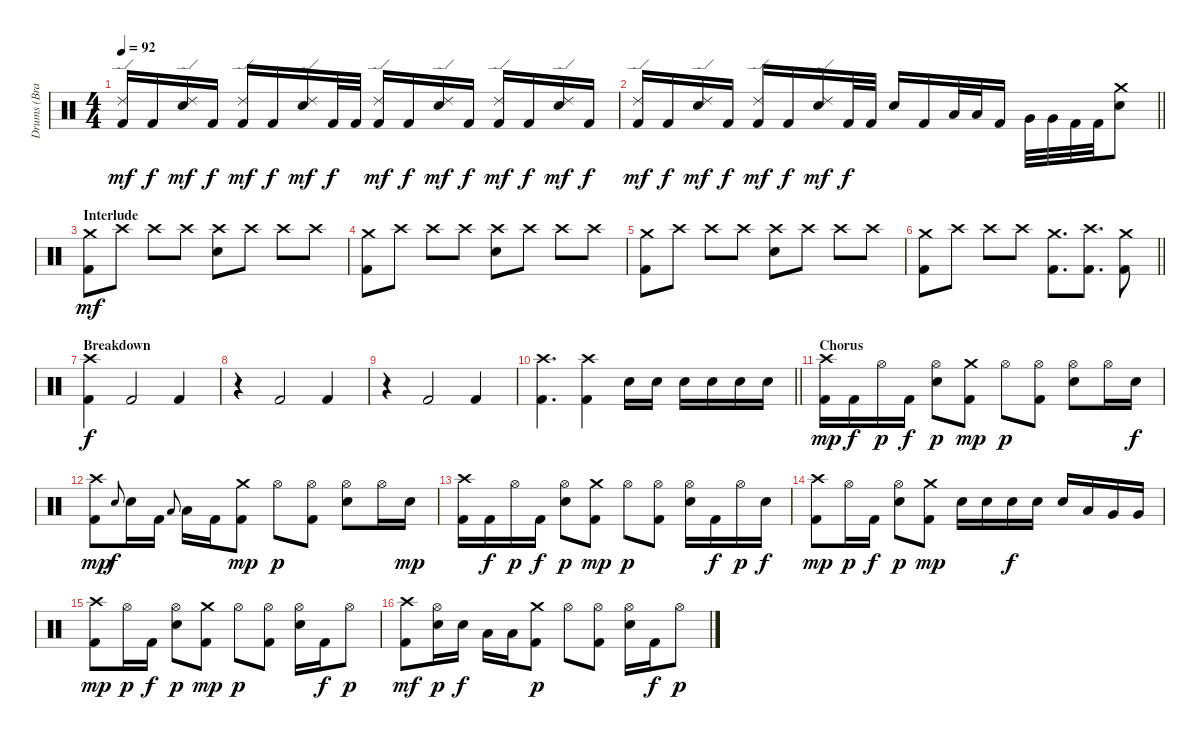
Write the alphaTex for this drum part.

\track ("Drums (Brandon Saller)" "Drums (Bra") {instrument percussion}
\staff {score}
\articulation defaults
\ts (4 4)
\tempo 92
\clef neutral
\ks c
("Ride (edge) 2" "Kick (hit) 2").16{dy mf} "Kick (hit) 2".16{dy f} ("Ride (edge) 2" "Electric Snare (hit)").16{dy mf} "Kick (hit) 2".16{dy f} ("Ride (edge) 2" "Kick (hit) 2").16{dy mf} "Kick (hit) 2".16{dy f} ("Ride (edge) 2" "Electric Snare (hit)").16{dy mf} "Kick (hit) 2".32{dy f} "Kick (hit) 2".32 ("Ride (edge) 2" "Kick (hit) 2").16{dy mf} "Kick (hit) 2".16{dy f} ("Ride (edge) 2" "Electric Snare (hit)").16{dy mf} "Kick (hit) 2".16{dy f} ("Ride (edge) 2" "Kick (hit) 2").16{dy mf} "Kick (hit) 2".16{dy f} ("Ride (edge) 2" "Electric Snare (hit)").16{dy mf} "Kick (hit) 2".16{dy f} |
\barLineRight lightlight
("Ride (edge) 2" "Kick (hit) 2").16{dy mf} "Kick (hit) 2".16{dy f} ("Ride (edge) 2" "Electric Snare (hit)").16{dy mf} "Kick (hit) 2".16{dy f} ("Ride (edge) 2" "Kick (hit) 2").16{dy mf} "Kick (hit) 2".16{dy f} ("Ride (edge) 2" "Electric Snare (hit)").16{dy mf} "Kick (hit) 2".32{dy f} "Kick (hit) 2".32 "Electric Snare (hit)".16 "Kick (hit) 2".16 "Low Tom (hit)".32 "Low Tom (hit)".32 "Kick (hit) 2".16 "Very Low Tom (hit)".32 "Very Low Tom (hit)".32 "Kick (hit) 2".32 "Kick (hit) 2".32 ("Crash medium (hit)" "Electric Snare (hit)").8 |
\section ("" "Interlude")
("Crash medium (hit)" "Kick (hit) 2").8{dy mf} "Crash high (hit)".8 "Crash high (hit)".8 "Crash high (hit)".8 ("Crash high (hit)" "Electric Snare (hit)").8 "Crash high (hit)".8 "Crash high (hit)".8 "Crash high (hit)".8 |
("Crash medium (hit)" "Kick (hit) 2").8 "Crash high (hit)".8 "Crash high (hit)".8 "Crash high (hit)".8 ("Crash high (hit)" "Electric Snare (hit)").8 "Crash high (hit)".8 "Crash high (hit)".8 "Crash high (hit)".8 |
("Crash medium (hit)" "Kick (hit) 2").8 "Crash high (hit)".8 "Crash high (hit)".8 "Crash high (hit)".8 ("Crash high (hit)" "Electric Snare (hit)").8 "Crash high (hit)".8 "Crash high (hit)".8 "Crash high (hit)".8 |
\barLineRight lightlight
("Crash medium (hit)" "Kick (hit) 2").8 "Crash high (hit)".8 "Crash high (hit)".8 "Crash high (hit)".8 ("Crash medium (hit)" "Kick (hit) 2").8{d} ("Crash high (hit)" "Kick (hit) 2").8{d} ("Crash medium (hit)" "Kick (hit) 2").8 |
\section ("" "Breakdown")
("Crash high (hit)" "Kick (hit) 2").4{dy f} "Kick (hit) 2".2 "Kick (hit) 2".4 |
r.4 "Kick (hit) 2".2 "Kick (hit) 2".4 |
r.4 "Kick (hit) 2".2 "Kick (hit) 2".4 |
\barLineRight lightlight
("Crash high (hit)" "Kick (hit) 2").4{d} ("Crash high (hit)" "Kick (hit) 2").4 "Electric Snare (hit)".16 "Electric Snare (hit)".16 "Electric Snare (hit)".16 "Electric Snare (hit)".16 "Electric Snare (hit)".16 "Electric Snare (hit)".16 |
\section ("" "Chorus")
("Crash high (hit)" "Kick (hit) 2").16{dy mp} "Kick (hit) 2".16{dy f} "Hi-Hat (open)".16{dy p} "Kick (hit) 2".16{dy f} ("Hi-Hat (open)" "Electric Snare (hit)").8{dy p} ("Crash medium (hit)" "Kick (hit) 2").8{dy mp} "Hi-Hat (open)".8{dy p} ("Hi-Hat (open)" "Kick (hit) 2").8 ("Hi-Hat (open)" "Electric Snare (hit)").8 "Hi-Hat (open)".16 "Electric Snare (hit)".16{dy f} |
("Crash high (hit)" "Kick (hit) 2").8{dy mp} "Electric Snare (hit)"{h}.8{gr onbeat dy f} "Electric Snare (hit)".16 "Kick (hit) 2".16 "Low Tom (hit)".8{gr onbeat} "Low Tom (hit)".16 "Kick (hit) 2".16 ("Crash medium (hit)" "Kick (hit) 2").8{dy mp} "Hi-Hat (open)".8{dy p} ("Hi-Hat (open)" "Kick (hit) 2").8 ("Hi-Hat (open)" "Electric Snare (hit)").8 "Hi-Hat (open)".16 "Electric Snare (hit)".16{dy mp} |
("Crash high (hit)" "Kick (hit) 2").16 "Kick (hit) 2".16{dy f} "Hi-Hat (open)".16{dy p} "Kick (hit) 2".16{dy f} ("Hi-Hat (open)" "Electric Snare (hit)").8{dy p} ("Crash medium (hit)" "Kick (hit) 2").8{dy mp} "Hi-Hat (open)".8{dy p} ("Hi-Hat (open)" "Kick (hit) 2").8 ("Hi-Hat (open)" "Electric Snare (hit)").16 "Kick (hit) 2".16{dy f} "Hi-Hat (open)".16{dy p} "Electric Snare (hit)".16{dy f} |
("Crash high (hit)" "Kick (hit) 2").8{dy mp} "Hi-Hat (open)".16{dy p} "Kick (hit) 2".16{dy f} ("Hi-Hat (open)" "Electric Snare (hit)").8{dy p} ("Crash medium (hit)" "Kick (hit) 2").8{dy mp} "Electric Snare (hit)".16 "Electric Snare (hit)".16 "Electric Snare (hit)".16{dy f} "Electric Snare (hit)".16 "Electric Snare (hit)".16 "Low Tom (hit)".16 "Very Low Tom (hit)".16 "Very Low Tom (hit)".16 |
("Crash high (hit)" "Kick (hit) 2").8{dy mp} "Hi-Hat (open)".16{dy p} "Kick (hit) 2".16{dy f} ("Hi-Hat (open)" "Electric Snare (hit)").8{dy p} ("Crash medium (hit)" "Kick (hit) 2").8{dy mp} "Hi-Hat (open)".8{dy p} ("Hi-Hat (open)" "Kick (hit) 2").8 ("Hi-Hat (open)" "Electric Snare (hit)").16 "Kick (hit) 2".16{dy f} "Hi-Hat (open)".8{dy p} |
("Crash high (hit)" "Kick (hit) 2").8{dy mf} ("Hi-Hat (open)" "Electric Snare (hit)").16{dy p} "Electric Snare (hit)".16{dy f} "Low Tom (hit)".16 "Low Tom (hit)".16 ("Crash medium (hit)" "Kick (hit) 2").8{dy p} "Hi-Hat (open)".8 ("Hi-Hat (open)" "Kick (hit) 2").8 ("Hi-Hat (open)" "Electric Snare (hit)").16 "Kick (hit) 2".16{dy f} "Hi-Hat (open)".8{dy p}
